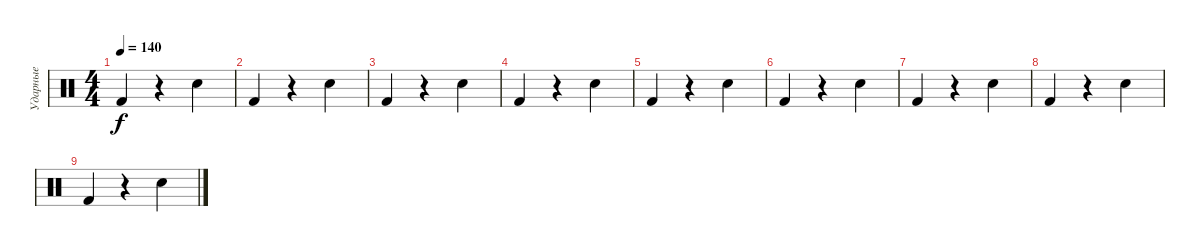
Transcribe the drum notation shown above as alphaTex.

\track ("Ударные" "Ударные") {instrument percussion}
\staff {score}
\articulation defaults
\ts (4 4)
\tempo 140
\clef neutral
\ks c "Kick (hit) 2".4{dy f}
r.4 "Snare (hit) 2".4 |
"Kick (hit) 2".4 r.4 "Snare (hit) 2".4 |
"Kick (hit) 2".4 r.4 "Snare (hit) 2".4 |
"Kick (hit) 2".4 r.4 "Snare (hit) 2".4 |
"Kick (hit) 2".4 r.4 "Snare (hit) 2".4 |
"Kick (hit) 2".4 r.4 "Snare (hit) 2".4 |
"Kick (hit) 2".4 r.4 "Snare (hit) 2".4 |
"Kick (hit) 2".4 r.4 "Snare (hit) 2".4 |
"Kick (hit) 2".4 r.4 "Snare (hit) 2".4
